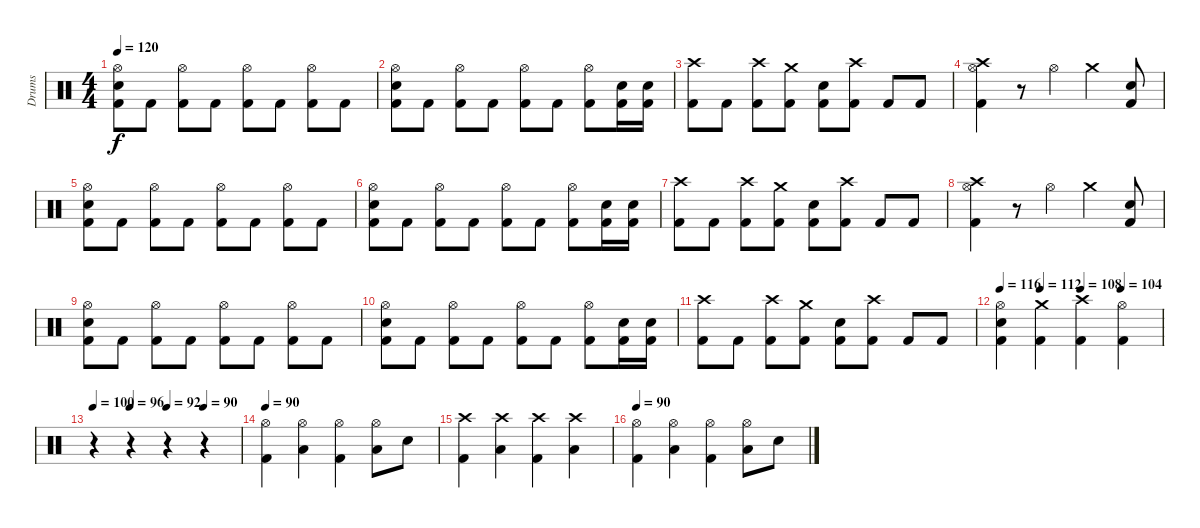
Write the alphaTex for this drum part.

\track ("Drums" "Drums") {instrument percussion}
\staff {score}
\articulation defaults
\ts (4 4)
\tempo 120
\clef neutral
\ks c
("Hi-Hat (open)" "Snare (hit) 2" "Kick (hit) 2").8{dy f} "Kick (hit) 2".8 ("Hi-Hat (open)" "Kick (hit) 2").8 "Kick (hit) 2".8 ("Hi-Hat (open)" "Kick (hit) 2").8 "Kick (hit) 2".8 ("Hi-Hat (open)" "Kick (hit) 2").8 "Kick (hit) 2".8 |
("Hi-Hat (open)" "Snare (hit) 2" "Kick (hit) 2").8 "Kick (hit) 2".8 ("Hi-Hat (open)" "Kick (hit) 2").8 "Kick (hit) 2".8 ("Hi-Hat (open)" "Kick (hit) 2").8 "Kick (hit) 2".8 ("Hi-Hat (open)" "Kick (hit) 2").8 ("Snare (hit) 2" "Kick (hit) 2").16 ("Snare (hit) 2" "Kick (hit) 2").16 |
("Crash high (hit)" "Kick (hit) 2").8 "Kick (hit) 2".8 ("Crash high (hit)" "Kick (hit) 2").8 ("Crash medium (hit)" "Kick (hit) 2").8 ("Snare (hit) 2" "Kick (hit) 2").8 ("Crash high (hit)" "Kick (hit) 2").8 "Kick (hit) 2".8 "Kick (hit) 2".8 |
("Hi-Hat (open)" "Crash high (hit)" "Kick (hit) 2").4 r.8 "Hi-Hat (open)".4 "Crash medium (hit)".4 ("Snare (hit) 2" "Kick (hit) 2").8 |
("Hi-Hat (open)" "Snare (hit) 2" "Kick (hit) 2").8 "Kick (hit) 2".8 ("Hi-Hat (open)" "Kick (hit) 2").8 "Kick (hit) 2".8 ("Hi-Hat (open)" "Kick (hit) 2").8 "Kick (hit) 2".8 ("Hi-Hat (open)" "Kick (hit) 2").8 "Kick (hit) 2".8 |
("Hi-Hat (open)" "Snare (hit) 2" "Kick (hit) 2").8 "Kick (hit) 2".8 ("Hi-Hat (open)" "Kick (hit) 2").8 "Kick (hit) 2".8 ("Hi-Hat (open)" "Kick (hit) 2").8 "Kick (hit) 2".8 ("Hi-Hat (open)" "Kick (hit) 2").8 ("Snare (hit) 2" "Kick (hit) 2").16 ("Snare (hit) 2" "Kick (hit) 2").16 |
("Crash high (hit)" "Kick (hit) 2").8 "Kick (hit) 2".8 ("Crash high (hit)" "Kick (hit) 2").8 ("Crash medium (hit)" "Kick (hit) 2").8 ("Snare (hit) 2" "Kick (hit) 2").8 ("Crash high (hit)" "Kick (hit) 2").8 "Kick (hit) 2".8 "Kick (hit) 2".8 |
("Hi-Hat (open)" "Crash high (hit)" "Kick (hit) 2").4 r.8 "Hi-Hat (open)".4 "Crash medium (hit)".4 ("Snare (hit) 2" "Kick (hit) 2").8 |
("Hi-Hat (open)" "Snare (hit) 2" "Kick (hit) 2").8 "Kick (hit) 2".8 ("Hi-Hat (open)" "Kick (hit) 2").8 "Kick (hit) 2".8 ("Hi-Hat (open)" "Kick (hit) 2").8 "Kick (hit) 2".8 ("Hi-Hat (open)" "Kick (hit) 2").8 "Kick (hit) 2".8 |
("Hi-Hat (open)" "Snare (hit) 2" "Kick (hit) 2").8 "Kick (hit) 2".8 ("Hi-Hat (open)" "Kick (hit) 2").8 "Kick (hit) 2".8 ("Hi-Hat (open)" "Kick (hit) 2").8 "Kick (hit) 2".8 ("Hi-Hat (open)" "Kick (hit) 2").8 ("Snare (hit) 2" "Kick (hit) 2").16 ("Snare (hit) 2" "Kick (hit) 2").16 |
("Crash high (hit)" "Kick (hit) 2").8 "Kick (hit) 2".8 ("Crash high (hit)" "Kick (hit) 2").8 ("Crash medium (hit)" "Kick (hit) 2").8 ("Snare (hit) 2" "Kick (hit) 2").8 ("Crash high (hit)" "Kick (hit) 2").8 "Kick (hit) 2".8 "Kick (hit) 2".8 |
\tempo 116
\tempo (112 0.25)
\tempo (108 0.5)
\tempo (104 0.75)
("Hi-Hat (open)" "Snare (hit) 2" "Kick (hit) 2").4 ("Crash medium (hit)" "Kick (hit) 2").4 ("Crash high (hit)" "Kick (hit) 2").4 ("Hi-Hat (open)" "Kick (hit) 2").4 |
\tempo 100
\tempo (96 0.25)
\tempo (92 0.5)
\tempo (90 0.75)
r.4 r.4 r.4 r.4 |
\tempo 90
("Hi-Hat (open)" "Kick (hit) 2").4 ("Hi-Hat (open)" "Low Floor Tom (hit)").4 ("Hi-Hat (open)" "Kick (hit) 2").4 ("Hi-Hat (open)" "Low Floor Tom (hit)").8 "Snare (hit) 2".8 |
("Crash high (hit)" "Kick (hit) 2").4 ("Crash high (hit)" "Low Floor Tom (hit)").4 ("Crash high (hit)" "Kick (hit) 2").4 ("Crash high (hit)" "Low Floor Tom (hit)").4 |
\tempo 90
("Hi-Hat (open)" "Kick (hit) 2").4 ("Hi-Hat (open)" "Low Floor Tom (hit)").4 ("Hi-Hat (open)" "Kick (hit) 2").4 ("Hi-Hat (open)" "Low Floor Tom (hit)").8 "Snare (hit) 2".8
